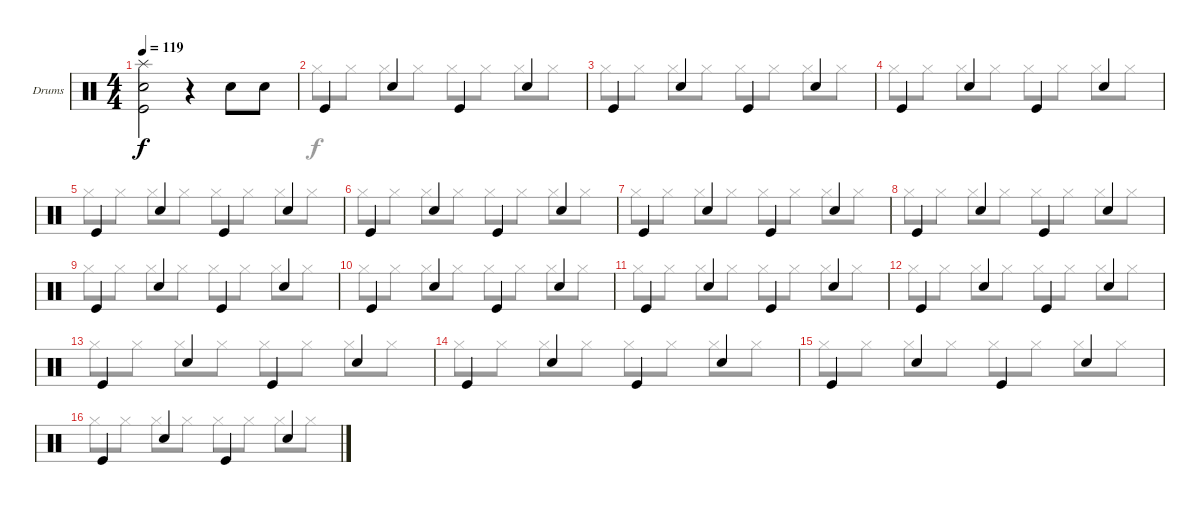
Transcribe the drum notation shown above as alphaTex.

\defaultSystemsLayout 4
\bracketExtendMode groupsimilarinstruments
\firstSystemTrackNameOrientation horizontal
\otherSystemsTrackNameOrientation horizontal
\track ("Drumkit" "Drums") {instrument percussion}
\staff {score}
\articulation defaults
\voice
\ts (4 4)
\tempo 119
\clef neutral
\ks c
("Snare (hit) 2" "Kick (hit)" "Splash (hit)").2{dy f} r.4 "Snare (hit) 2".8 "Snare (hit) 2".8 |
"Kick (hit)".4 "Snare (hit) 2".4 "Kick (hit)".4 "Snare (hit) 2".4 |
"Kick (hit)".4 "Snare (hit) 2".4 "Kick (hit)".4 "Snare (hit) 2".4 |
"Kick (hit)".4 "Snare (hit) 2".4 "Kick (hit)".4 "Snare (hit) 2".4 |
"Kick (hit)".4 "Snare (hit) 2".4 "Kick (hit)".4 "Snare (hit) 2".4 |
"Kick (hit)".4 "Snare (hit) 2".4 "Kick (hit)".4 "Snare (hit) 2".4 |
"Kick (hit)".4 "Snare (hit) 2".4 "Kick (hit)".4 "Snare (hit) 2".4 |
"Kick (hit)".4 "Snare (hit) 2".4 "Kick (hit)".4 "Snare (hit) 2".4 |
"Kick (hit)".4 "Snare (hit) 2".4 "Kick (hit)".4 "Snare (hit) 2".4 |
"Kick (hit)".4 "Snare (hit) 2".4 "Kick (hit)".4 "Snare (hit) 2".4 |
"Kick (hit)".4 "Snare (hit) 2".4 "Kick (hit)".4 "Snare (hit) 2".4 |
"Kick (hit)".4 "Snare (hit) 2".4 "Kick (hit)".4 "Snare (hit) 2".4 |
"Kick (hit)".4 "Snare (hit) 2".4 "Kick (hit)".4 "Snare (hit) 2".4 |
"Kick (hit)".4 "Snare (hit) 2".4 "Kick (hit)".4 "Snare (hit) 2".4 |
"Kick (hit)".4 "Snare (hit) 2".4 "Kick (hit)".4 "Snare (hit) 2".4 |
"Kick (hit)".4 "Snare (hit) 2".4 "Kick (hit)".4 "Snare (hit) 2".4
\voice
\clef neutral
\ottava regular
\simile none
\ks c
|
"Hi-Hat (closed)".8 "Hi-Hat (closed)".8 "Hi-Hat (closed)".8 "Hi-Hat (closed)".8 "Hi-Hat (closed)".8 "Hi-Hat (closed)".8 "Hi-Hat (closed)".8 "Hi-Hat (closed)".8 |
"Hi-Hat (closed)".8 "Hi-Hat (closed)".8 "Hi-Hat (closed)".8 "Hi-Hat (closed)".8 "Hi-Hat (closed)".8 "Hi-Hat (closed)".8 "Hi-Hat (closed)".8 "Hi-Hat (closed)".8 |
"Hi-Hat (closed)".8 "Hi-Hat (closed)".8 "Hi-Hat (closed)".8 "Hi-Hat (closed)".8 "Hi-Hat (closed)".8 "Hi-Hat (closed)".8 "Hi-Hat (closed)".8 "Hi-Hat (closed)".8 |
"Hi-Hat (closed)".8 "Hi-Hat (closed)".8 "Hi-Hat (closed)".8 "Hi-Hat (closed)".8 "Hi-Hat (closed)".8 "Hi-Hat (closed)".8 "Hi-Hat (closed)".8 "Hi-Hat (closed)".8 |
"Hi-Hat (closed)".8 "Hi-Hat (closed)".8 "Hi-Hat (closed)".8 "Hi-Hat (closed)".8 "Hi-Hat (closed)".8 "Hi-Hat (closed)".8 "Hi-Hat (closed)".8 "Hi-Hat (closed)".8 |
"Hi-Hat (closed)".8 "Hi-Hat (closed)".8 "Hi-Hat (closed)".8 "Hi-Hat (closed)".8 "Hi-Hat (closed)".8 "Hi-Hat (closed)".8 "Hi-Hat (closed)".8 "Hi-Hat (closed)".8 |
"Hi-Hat (closed)".8 "Hi-Hat (closed)".8 "Hi-Hat (closed)".8 "Hi-Hat (closed)".8 "Hi-Hat (closed)".8 "Hi-Hat (closed)".8 "Hi-Hat (closed)".8 "Hi-Hat (closed)".8 |
"Hi-Hat (closed)".8 "Hi-Hat (closed)".8 "Hi-Hat (closed)".8 "Hi-Hat (closed)".8 "Hi-Hat (closed)".8 "Hi-Hat (closed)".8 "Hi-Hat (closed)".8 "Hi-Hat (closed)".8 |
"Hi-Hat (closed)".8 "Hi-Hat (closed)".8 "Hi-Hat (closed)".8 "Hi-Hat (closed)".8 "Hi-Hat (closed)".8 "Hi-Hat (closed)".8 "Hi-Hat (closed)".8 "Hi-Hat (closed)".8 |
"Hi-Hat (closed)".8 "Hi-Hat (closed)".8 "Hi-Hat (closed)".8 "Hi-Hat (closed)".8 "Hi-Hat (closed)".8 "Hi-Hat (closed)".8 "Hi-Hat (closed)".8 "Hi-Hat (closed)".8 |
"Hi-Hat (closed)".8 "Hi-Hat (closed)".8 "Hi-Hat (closed)".8 "Hi-Hat (closed)".8 "Hi-Hat (closed)".8 "Hi-Hat (closed)".8 "Hi-Hat (closed)".8 "Hi-Hat (closed)".8 |
"Hi-Hat (closed)".8 "Hi-Hat (closed)".8 "Hi-Hat (closed)".8 "Hi-Hat (closed)".8 "Hi-Hat (closed)".8 "Hi-Hat (closed)".8 "Hi-Hat (closed)".8 "Hi-Hat (closed)".8 |
"Hi-Hat (closed)".8 "Hi-Hat (closed)".8 "Hi-Hat (closed)".8 "Hi-Hat (closed)".8 "Hi-Hat (closed)".8 "Hi-Hat (closed)".8 "Hi-Hat (closed)".8 "Hi-Hat (closed)".8 |
"Hi-Hat (closed)".8 "Hi-Hat (closed)".8 "Hi-Hat (closed)".8 "Hi-Hat (closed)".8 "Hi-Hat (closed)".8 "Hi-Hat (closed)".8 "Hi-Hat (closed)".8 "Hi-Hat (closed)".8 |
"Hi-Hat (closed)".8 "Hi-Hat (closed)".8 "Hi-Hat (closed)".8 "Hi-Hat (closed)".8 "Hi-Hat (closed)".8 "Hi-Hat (closed)".8 "Hi-Hat (closed)".8 "Hi-Hat (closed)".8
